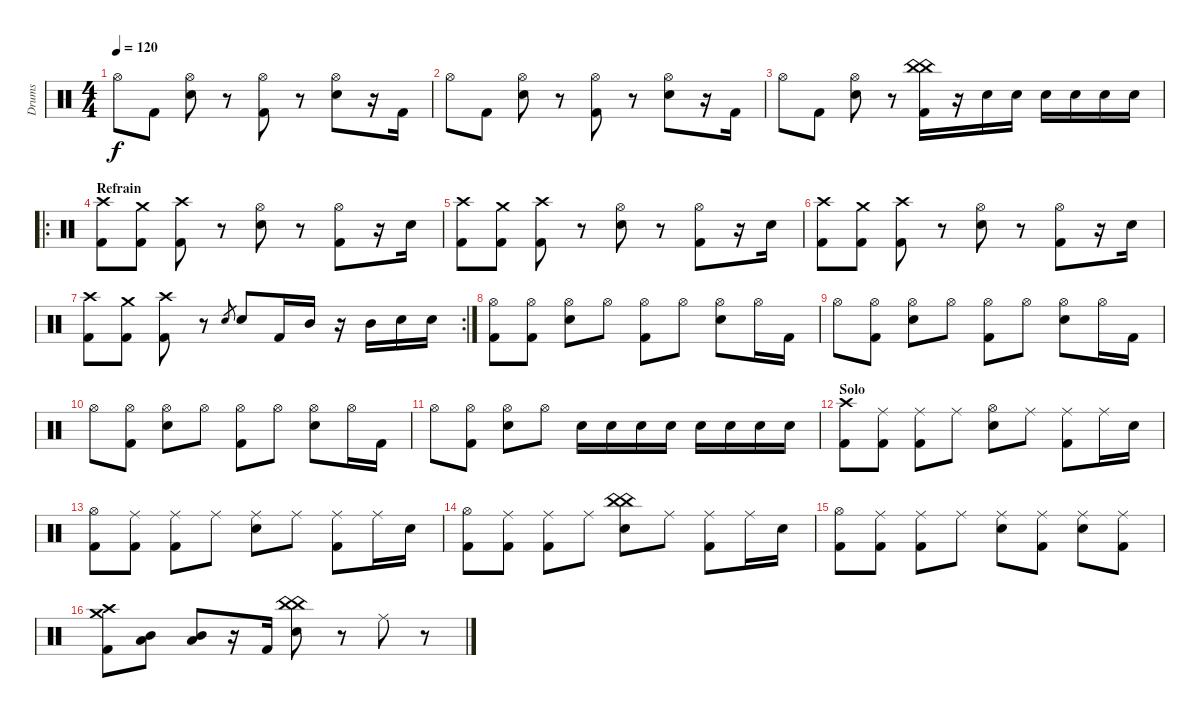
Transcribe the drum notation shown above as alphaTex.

\track ("Drums" "Drums") {instrument percussion}
\staff {score}
\articulation defaults
\ts (4 4)
\tempo 120
\clef neutral
\ks c "Hi-Hat (open)".8{dy f} "Kick (hit) 2".8
("Hi-Hat (open)" "Electric Snare (hit)").8 r.8 ("Hi-Hat (open)" "Kick (hit) 2").8 r.8 ("Hi-Hat (open)" "Electric Snare (hit)").8 r.16 "Kick (hit) 2".16 |
"Hi-Hat (open)".8 "Kick (hit) 2".8 ("Hi-Hat (open)" "Electric Snare (hit)").8 r.8 ("Hi-Hat (open)" "Kick (hit) 2").8 r.8 ("Hi-Hat (open)" "Electric Snare (hit)").8 r.16 "Kick (hit) 2".16 |
"Hi-Hat (open)".8 "Kick (hit) 2".8 ("Hi-Hat (open)" "Electric Snare (hit)").8 r.8 ("China (hit)" "China (hit)" "Kick (hit) 2").16 r.16 "Electric Snare (hit)".16 "Electric Snare (hit)".16 "Electric Snare (hit)".16 "Electric Snare (hit)".16 "Electric Snare (hit)".16 "Electric Snare (hit)".16 |
\ro
\section ("" "Refrain")
("Crash high (hit)" "Kick (hit) 2").8 ("Crash medium (hit)" "Kick (hit) 2").8 ("Crash high (hit)" "Kick (hit) 2").8 r.8 ("Hi-Hat (open)" "Electric Snare (hit)").8 r.8 ("Hi-Hat (open)" "Kick (hit) 2").8 r.16 "Electric Snare (hit)".16 |
("Crash high (hit)" "Kick (hit) 2").8 ("Crash medium (hit)" "Kick (hit) 2").8 ("Crash high (hit)" "Kick (hit) 2").8 r.8 ("Hi-Hat (open)" "Electric Snare (hit)").8 r.8 ("Hi-Hat (open)" "Kick (hit) 2").8 r.16 "Electric Snare (hit)".16 |
("Crash high (hit)" "Kick (hit) 2").8 ("Crash medium (hit)" "Kick (hit) 2").8 ("Crash high (hit)" "Kick (hit) 2").8 r.8 ("Hi-Hat (open)" "Electric Snare (hit)").8 r.8 ("Hi-Hat (open)" "Kick (hit) 2").8 r.16 "Electric Snare (hit)".16 |
\rc 2
("Crash high (hit)" "Kick (hit) 2").8 ("Crash medium (hit)" "Kick (hit) 2").8 ("Crash high (hit)" "Kick (hit) 2").8 r.8 "Electric Snare (hit)".8{gr} "Electric Snare (hit)".8 "Kick (hit) 2".16 "Mid Tom (hit)".16 r.16 "Mid Tom (hit)".16 "Electric Snare (hit)".16 "Electric Snare (hit)".16 |
("Hi-Hat (open)" "Kick (hit) 2").8 ("Hi-Hat (open)" "Kick (hit) 2").8 ("Hi-Hat (open)" "Electric Snare (hit)").8 "Hi-Hat (open)".8 ("Hi-Hat (open)" "Kick (hit) 2").8 "Hi-Hat (open)".8 ("Hi-Hat (open)" "Electric Snare (hit)").8 "Hi-Hat (open)".16 "Kick (hit) 2".16 |
"Hi-Hat (open)".8 ("Hi-Hat (open)" "Kick (hit) 2").8 ("Hi-Hat (open)" "Electric Snare (hit)").8 "Hi-Hat (open)".8 ("Hi-Hat (open)" "Kick (hit) 2").8 "Hi-Hat (open)".8 ("Hi-Hat (open)" "Electric Snare (hit)").8 "Hi-Hat (open)".16 "Kick (hit) 2".16 |
"Hi-Hat (open)".8 ("Hi-Hat (open)" "Kick (hit) 2").8 ("Hi-Hat (open)" "Electric Snare (hit)").8 "Hi-Hat (open)".8 ("Hi-Hat (open)" "Kick (hit) 2").8 "Hi-Hat (open)".8 ("Hi-Hat (open)" "Electric Snare (hit)").8 "Hi-Hat (open)".16 "Kick (hit) 2".16 |
"Hi-Hat (open)".8 ("Hi-Hat (open)" "Kick (hit) 2").8 ("Hi-Hat (open)" "Electric Snare (hit)").8 "Hi-Hat (open)".8 "Electric Snare (hit)".16 "Electric Snare (hit)".16 "Electric Snare (hit)".16 "Electric Snare (hit)".16 "Electric Snare (hit)".16 "Electric Snare (hit)".16 "Electric Snare (hit)".16 "Electric Snare (hit)".16 |
\section ("" "Solo")
("Crash high (hit)" "Kick (hit) 2").8 ("Ride (middle)" "Kick (hit) 2").8 ("Ride (middle)" "Kick (hit) 2").8 "Ride (middle)".8 ("Hi-Hat (open)" "Electric Snare (hit)").8 "Ride (middle)".8 ("Ride (middle)" "Kick (hit) 2").8 "Ride (middle)".16 "Electric Snare (hit)".16 |
("Hi-Hat (open)" "Kick (hit) 2").8 ("Ride (middle)" "Kick (hit) 2").8 ("Ride (middle)" "Kick (hit) 2").8 "Ride (middle)".8 ("Ride (middle)" "Electric Snare (hit)").8 "Ride (middle)".8 ("Ride (middle)" "Kick (hit) 2").8 "Ride (middle)".16 "Electric Snare (hit)".16 |
("Hi-Hat (open)" "Kick (hit) 2").8 ("Ride (middle)" "Kick (hit) 2").8 ("Ride (middle)" "Kick (hit) 2").8 "Ride (middle)".8 ("China (hit)" "China (hit)" "Electric Snare (hit)").8 "Ride (middle)".8 ("Ride (middle)" "Kick (hit) 2").8 "Ride (middle)".16 "Electric Snare (hit)".16 |
("Hi-Hat (open)" "Kick (hit) 2").8 ("Ride (middle)" "Kick (hit) 2").8 ("Ride (middle)" "Kick (hit) 2").8 "Ride (middle)".8 ("Ride (middle)" "Electric Snare (hit)").8 ("Ride (middle)" "Kick (hit) 2").8 ("Ride (middle)" "Electric Snare (hit)").8 ("Ride (middle)" "Kick (hit) 2").8 |
("Crash high (hit)" "Crash medium (hit)" "Kick (hit) 2").8 ("Mid Tom (hit)" "Low Tom (hit)").8 ("Mid Tom (hit)" "Low Tom (hit)").8 r.16 "Kick (hit) 2".16 ("China (hit)" "China (hit)" "Electric Snare (hit)").8 r.8 "Ride (middle)".8 r.8
